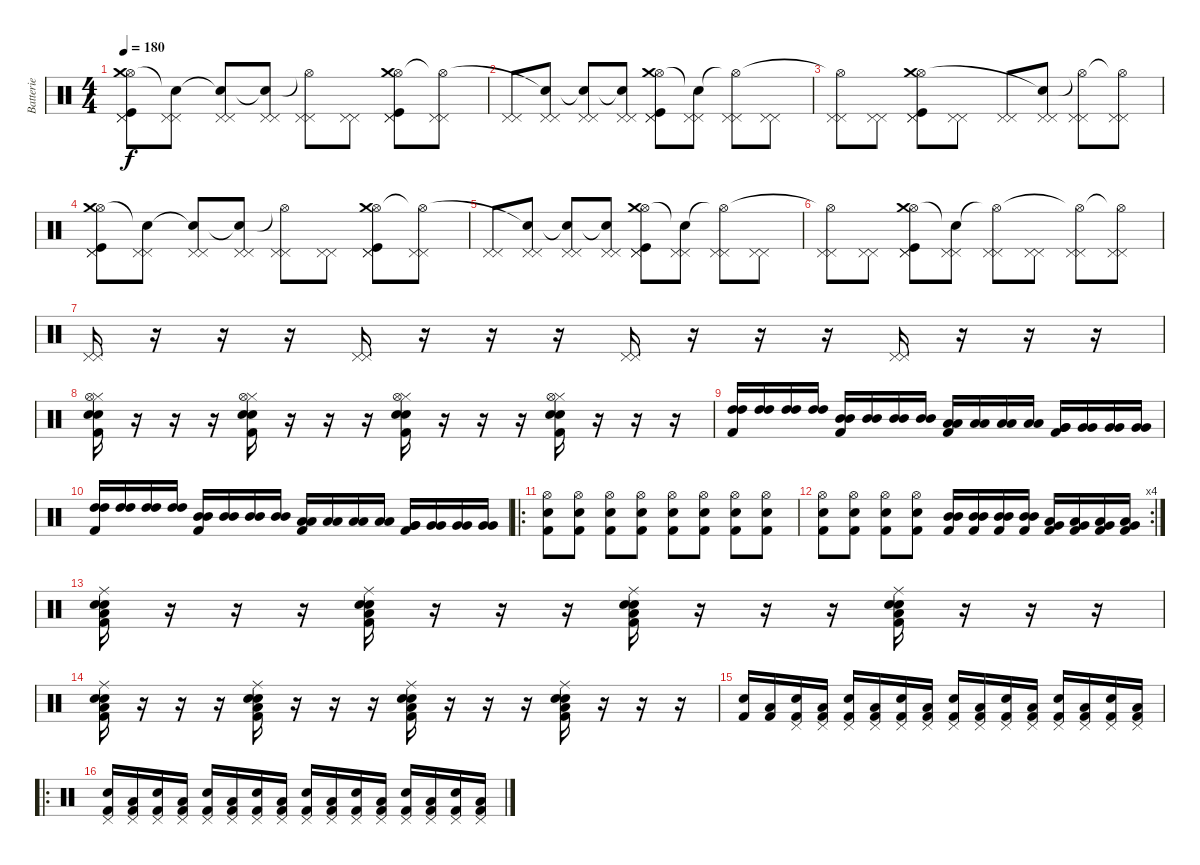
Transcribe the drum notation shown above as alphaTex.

\track ("Batterie" "Batterie") {instrument percussion}
\staff {score}
\articulation defaults
\ts (4 4)
\tempo 180
\clef neutral
\ks c
("Pedal Hi-Hat (hit)" "Pedal Hi-Hat (hit)" "Hi-Hat (open)" "Kick (hit)" "Crash medium (hit)").8{dy f} ("Pedal Hi-Hat (hit)" "Pedal Hi-Hat (hit)" "Snare (hit)"{t}).8 ("Pedal Hi-Hat (hit)" "Pedal Hi-Hat (hit)" "Snare (hit)"{t}).8 ("Pedal Hi-Hat (hit)" "Pedal Hi-Hat (hit)" "Snare (hit)"{t}).8 ("Pedal Hi-Hat (hit)" "Pedal Hi-Hat (hit)" "Hi-Hat (open)"{t}).8 ("Pedal Hi-Hat (hit)" "Pedal Hi-Hat (hit)").8 ("Pedal Hi-Hat (hit)" "Pedal Hi-Hat (hit)" "Hi-Hat (open)" "Kick (hit)" "Crash medium (hit)").8 ("Pedal Hi-Hat (hit)" "Pedal Hi-Hat (hit)" "Hi-Hat (open)"{t}).8 |
("Pedal Hi-Hat (hit)" "Pedal Hi-Hat (hit)").8 ("Pedal Hi-Hat (hit)" "Pedal Hi-Hat (hit)" "Snare (hit)"{t}).8 ("Pedal Hi-Hat (hit)" "Pedal Hi-Hat (hit)" "Snare (hit)"{t}).8 ("Pedal Hi-Hat (hit)" "Pedal Hi-Hat (hit)" "Snare (hit)"{t}).8 ("Pedal Hi-Hat (hit)" "Pedal Hi-Hat (hit)" "Hi-Hat (open)" "Kick (hit)" "Crash medium (hit)").8 ("Pedal Hi-Hat (hit)" "Pedal Hi-Hat (hit)" "Snare (hit)"{t}).8 ("Pedal Hi-Hat (hit)" "Pedal Hi-Hat (hit)" "Hi-Hat (open)"{t}).8 ("Pedal Hi-Hat (hit)" "Pedal Hi-Hat (hit)").8 |
("Pedal Hi-Hat (hit)" "Pedal Hi-Hat (hit)" "Hi-Hat (open)"{t}).8 ("Pedal Hi-Hat (hit)" "Pedal Hi-Hat (hit)").8 ("Pedal Hi-Hat (hit)" "Pedal Hi-Hat (hit)" "Hi-Hat (open)" "Kick (hit)" "Crash medium (hit)").8 ("Pedal Hi-Hat (hit)" "Pedal Hi-Hat (hit)").8 ("Pedal Hi-Hat (hit)" "Pedal Hi-Hat (hit)").8 ("Pedal Hi-Hat (hit)" "Pedal Hi-Hat (hit)" "Snare (hit)"{t}).8 ("Pedal Hi-Hat (hit)" "Pedal Hi-Hat (hit)" "Hi-Hat (open)"{t}).8 ("Pedal Hi-Hat (hit)" "Pedal Hi-Hat (hit)" "Hi-Hat (open)"{t}).8 |
("Pedal Hi-Hat (hit)" "Pedal Hi-Hat (hit)" "Hi-Hat (open)" "Kick (hit)" "Crash medium (hit)").8 ("Pedal Hi-Hat (hit)" "Pedal Hi-Hat (hit)" "Snare (hit)"{t}).8 ("Pedal Hi-Hat (hit)" "Pedal Hi-Hat (hit)" "Snare (hit)"{t}).8 ("Pedal Hi-Hat (hit)" "Pedal Hi-Hat (hit)" "Snare (hit)"{t}).8 ("Pedal Hi-Hat (hit)" "Pedal Hi-Hat (hit)" "Hi-Hat (open)"{t}).8 ("Pedal Hi-Hat (hit)" "Pedal Hi-Hat (hit)").8 ("Pedal Hi-Hat (hit)" "Pedal Hi-Hat (hit)" "Hi-Hat (open)" "Kick (hit)" "Crash medium (hit)").8 ("Pedal Hi-Hat (hit)" "Pedal Hi-Hat (hit)" "Hi-Hat (open)"{t}).8 |
("Pedal Hi-Hat (hit)" "Pedal Hi-Hat (hit)").8 ("Pedal Hi-Hat (hit)" "Pedal Hi-Hat (hit)" "Snare (hit)"{t}).8 ("Pedal Hi-Hat (hit)" "Pedal Hi-Hat (hit)" "Snare (hit)"{t}).8 ("Pedal Hi-Hat (hit)" "Pedal Hi-Hat (hit)" "Snare (hit)"{t}).8 ("Pedal Hi-Hat (hit)" "Pedal Hi-Hat (hit)" "Hi-Hat (open)" "Kick (hit)" "Crash medium (hit)").8 ("Pedal Hi-Hat (hit)" "Pedal Hi-Hat (hit)" "Snare (hit)"{t}).8 ("Pedal Hi-Hat (hit)" "Pedal Hi-Hat (hit)" "Hi-Hat (open)"{t}).8 ("Pedal Hi-Hat (hit)" "Pedal Hi-Hat (hit)").8 |
("Pedal Hi-Hat (hit)" "Pedal Hi-Hat (hit)" "Hi-Hat (open)"{t}).8 ("Pedal Hi-Hat (hit)" "Pedal Hi-Hat (hit)").8 ("Pedal Hi-Hat (hit)" "Pedal Hi-Hat (hit)" "Hi-Hat (open)" "Kick (hit)" "Crash medium (hit)").8 ("Pedal Hi-Hat (hit)" "Pedal Hi-Hat (hit)" "Snare (hit)"{t}).8 ("Pedal Hi-Hat (hit)" "Pedal Hi-Hat (hit)" "Hi-Hat (open)"{t}).8 ("Pedal Hi-Hat (hit)" "Pedal Hi-Hat (hit)").8 ("Pedal Hi-Hat (hit)" "Pedal Hi-Hat (hit)" "Hi-Hat (open)"{t}).8 ("Pedal Hi-Hat (hit)" "Pedal Hi-Hat (hit)" "Hi-Hat (open)"{t}).8 |
("Pedal Hi-Hat (hit)" "Pedal Hi-Hat (hit)").16 r.16 r.16 r.16 ("Pedal Hi-Hat (hit)" "Pedal Hi-Hat (hit)").16 r.16 r.16 r.16 ("Pedal Hi-Hat (hit)" "Pedal Hi-Hat (hit)").16 r.16 r.16 r.16 ("Pedal Hi-Hat (hit)" "Pedal Hi-Hat (hit)").16 r.16 r.16 r.16 |
("Electric Snare (hit)" "Electric Snare (hit)" "Hi-Hat (closed)" "Hi-Hat (open)" "Kick (hit) 2").16 r.16 r.16 r.16 ("Electric Snare (hit)" "Electric Snare (hit)" "Hi-Hat (closed)" "Hi-Hat (open)" "Kick (hit) 2").16 r.16 r.16 r.16 ("Electric Snare (hit)" "Electric Snare (hit)" "Hi-Hat (closed)" "Hi-Hat (open)" "Kick (hit) 2").16 r.16 r.16 r.16 ("Electric Snare (hit)" "Electric Snare (hit)" "Hi-Hat (closed)" "Hi-Hat (open)" "Kick (hit) 2").16 r.16 r.16 r.16 |
("High Tom (hit)" "High Tom (hit)" "Kick (hit) 2").16 ("High Tom (hit)" "High Tom (hit)").16 ("High Tom (hit)" "High Tom (hit)").16 ("High Tom (hit)" "High Tom (hit)").16 ("Mid Tom (hit)" "Mid Tom (hit)" "Kick (hit) 2").16 ("Mid Tom (hit)" "Mid Tom (hit)").16 ("Mid Tom (hit)" "Mid Tom (hit)").16 ("Mid Tom (hit)" "Mid Tom (hit)").16 ("Low Tom (hit)" "Low Tom (hit)" "Kick (hit) 2").16 ("Low Tom (hit)" "Low Tom (hit)").16 ("Low Tom (hit)" "Low Tom (hit)").16 ("Low Tom (hit)" "Low Tom (hit)").16 ("Very Low Tom (hit)" "Very Low Tom (hit)" "Kick (hit) 2").16 ("Very Low Tom (hit)" "Very Low Tom (hit)").16 ("Very Low Tom (hit)" "Very Low Tom (hit)").16 ("Very Low Tom (hit)" "Very Low Tom (hit)").16 |
("High Tom (hit)" "High Tom (hit)" "Kick (hit) 2").16 ("High Tom (hit)" "High Tom (hit)").16 ("High Tom (hit)" "High Tom (hit)").16 ("High Tom (hit)" "High Tom (hit)").16 ("Mid Tom (hit)" "Mid Tom (hit)" "Kick (hit) 2").16 ("Mid Tom (hit)" "Mid Tom (hit)").16 ("Mid Tom (hit)" "Mid Tom (hit)").16 ("Mid Tom (hit)" "Mid Tom (hit)").16 ("Low Tom (hit)" "Low Tom (hit)" "Kick (hit) 2").16 ("Low Tom (hit)" "Low Tom (hit)").16 ("Low Tom (hit)" "Low Tom (hit)").16 ("Low Tom (hit)" "Low Tom (hit)").16 ("Very Low Tom (hit)" "Very Low Tom (hit)" "Kick (hit) 2").16 ("Very Low Tom (hit)" "Very Low Tom (hit)").16 ("Very Low Tom (hit)" "Very Low Tom (hit)").16 ("Very Low Tom (hit)" "Very Low Tom (hit)").16 |
\ro
("Kick (hit) 2" "Electric Snare (hit)" "Hi-Hat (open)").8 ("Kick (hit) 2" "Electric Snare (hit)" "Hi-Hat (open)").8 ("Kick (hit) 2" "Electric Snare (hit)" "Hi-Hat (open)").8 ("Kick (hit) 2" "Electric Snare (hit)" "Hi-Hat (open)").8 ("Kick (hit) 2" "Electric Snare (hit)" "Hi-Hat (open)").8 ("Kick (hit) 2" "Electric Snare (hit)" "Hi-Hat (open)").8 ("Kick (hit) 2" "Electric Snare (hit)" "Hi-Hat (open)").8 ("Kick (hit) 2" "Electric Snare (hit)" "Hi-Hat (open)").8 |
\rc 4
("Kick (hit) 2" "Electric Snare (hit)" "Hi-Hat (open)").8 ("Kick (hit) 2" "Electric Snare (hit)" "Hi-Hat (open)").8 ("Kick (hit) 2" "Electric Snare (hit)" "Hi-Hat (open)").8 ("Kick (hit) 2" "Electric Snare (hit)" "Hi-Hat (open)").8 ("Mid Tom (hit)" "Mid Tom (hit)" "Kick (hit) 2").16 ("Mid Tom (hit)" "Mid Tom (hit)" "Kick (hit) 2").16 ("Mid Tom (hit)" "Mid Tom (hit)" "Kick (hit) 2").16 ("Mid Tom (hit)" "Mid Tom (hit)" "Kick (hit) 2").16 ("Very Low Tom (hit)" "Low Tom (hit)" "Kick (hit) 2").16 ("Very Low Tom (hit)" "Low Tom (hit)" "Kick (hit) 2").16 ("Very Low Tom (hit)" "Low Tom (hit)" "Kick (hit) 2").16 ("Very Low Tom (hit)" "Low Tom (hit)" "Kick (hit) 2").16 |
("Ride (middle)" "Electric Snare (hit)" "Snare (hit) 2" "Low Floor Tom (hit)" "Kick (hit) 2").16 r.16 r.16 r.16 ("Ride (middle)" "Electric Snare (hit)" "Snare (hit) 2" "Low Floor Tom (hit)" "Kick (hit) 2").16 r.16 r.16 r.16 ("Ride (middle)" "Electric Snare (hit)" "Snare (hit) 2" "Low Floor Tom (hit)" "Kick (hit) 2").16 r.16 r.16 r.16 ("Ride (middle)" "Electric Snare (hit)" "Snare (hit) 2" "Low Floor Tom (hit)" "Kick (hit) 2").16 r.16 r.16 r.16 |
("Ride (middle)" "Electric Snare (hit)" "Snare (hit) 2" "Low Floor Tom (hit)" "Kick (hit) 2").16 r.16 r.16 r.16 ("Ride (middle)" "Electric Snare (hit)" "Snare (hit) 2" "Low Floor Tom (hit)" "Kick (hit) 2").16 r.16 r.16 r.16 ("Ride (middle)" "Electric Snare (hit)" "Snare (hit) 2" "Low Floor Tom (hit)" "Kick (hit) 2").16 r.16 r.16 r.16 ("Ride (middle)" "Electric Snare (hit)" "Snare (hit) 2" "Low Floor Tom (hit)" "Kick (hit) 2").16 r.16 r.16 r.16 |
("Electric Snare (hit)" "Kick (hit) 2").16 ("Low Tom (hit)" "Kick (hit) 2").16 ("Pedal Hi-Hat (hit)" "Electric Snare (hit)" "Kick (hit) 2").16 ("Pedal Hi-Hat (hit)" "Low Tom (hit)" "Kick (hit) 2").16 ("Pedal Hi-Hat (hit)" "Electric Snare (hit)" "Kick (hit) 2").16 ("Pedal Hi-Hat (hit)" "Low Tom (hit)" "Kick (hit) 2").16 ("Pedal Hi-Hat (hit)" "Electric Snare (hit)" "Kick (hit) 2").16 ("Pedal Hi-Hat (hit)" "Low Tom (hit)" "Kick (hit) 2").16 ("Pedal Hi-Hat (hit)" "Electric Snare (hit)" "Kick (hit) 2").16 ("Pedal Hi-Hat (hit)" "Low Tom (hit)" "Kick (hit) 2").16 ("Pedal Hi-Hat (hit)" "Electric Snare (hit)" "Kick (hit) 2").16 ("Pedal Hi-Hat (hit)" "Low Tom (hit)" "Kick (hit) 2").16 ("Pedal Hi-Hat (hit)" "Electric Snare (hit)" "Kick (hit) 2").16 ("Pedal Hi-Hat (hit)" "Low Tom (hit)" "Kick (hit) 2").16 ("Pedal Hi-Hat (hit)" "Electric Snare (hit)" "Kick (hit) 2").16 ("Pedal Hi-Hat (hit)" "Low Tom (hit)" "Kick (hit) 2").16 |
\ro
("Pedal Hi-Hat (hit)" "Electric Snare (hit)" "Kick (hit) 2").16 ("Pedal Hi-Hat (hit)" "Low Tom (hit)" "Kick (hit) 2").16 ("Pedal Hi-Hat (hit)" "Electric Snare (hit)" "Kick (hit) 2").16 ("Pedal Hi-Hat (hit)" "Low Tom (hit)" "Kick (hit) 2").16 ("Pedal Hi-Hat (hit)" "Electric Snare (hit)" "Kick (hit) 2").16 ("Pedal Hi-Hat (hit)" "Low Tom (hit)" "Kick (hit) 2").16 ("Pedal Hi-Hat (hit)" "Electric Snare (hit)" "Kick (hit) 2").16 ("Pedal Hi-Hat (hit)" "Low Tom (hit)" "Kick (hit) 2").16 ("Pedal Hi-Hat (hit)" "Electric Snare (hit)" "Kick (hit) 2").16 ("Pedal Hi-Hat (hit)" "Low Tom (hit)" "Kick (hit) 2").16 ("Pedal Hi-Hat (hit)" "Electric Snare (hit)" "Kick (hit) 2").16 ("Pedal Hi-Hat (hit)" "Low Tom (hit)" "Kick (hit) 2").16 ("Pedal Hi-Hat (hit)" "Electric Snare (hit)" "Kick (hit) 2").16 ("Pedal Hi-Hat (hit)" "Low Tom (hit)" "Kick (hit) 2").16 ("Pedal Hi-Hat (hit)" "Electric Snare (hit)" "Kick (hit) 2").16 ("Pedal Hi-Hat (hit)" "Low Tom (hit)" "Kick (hit) 2").16
